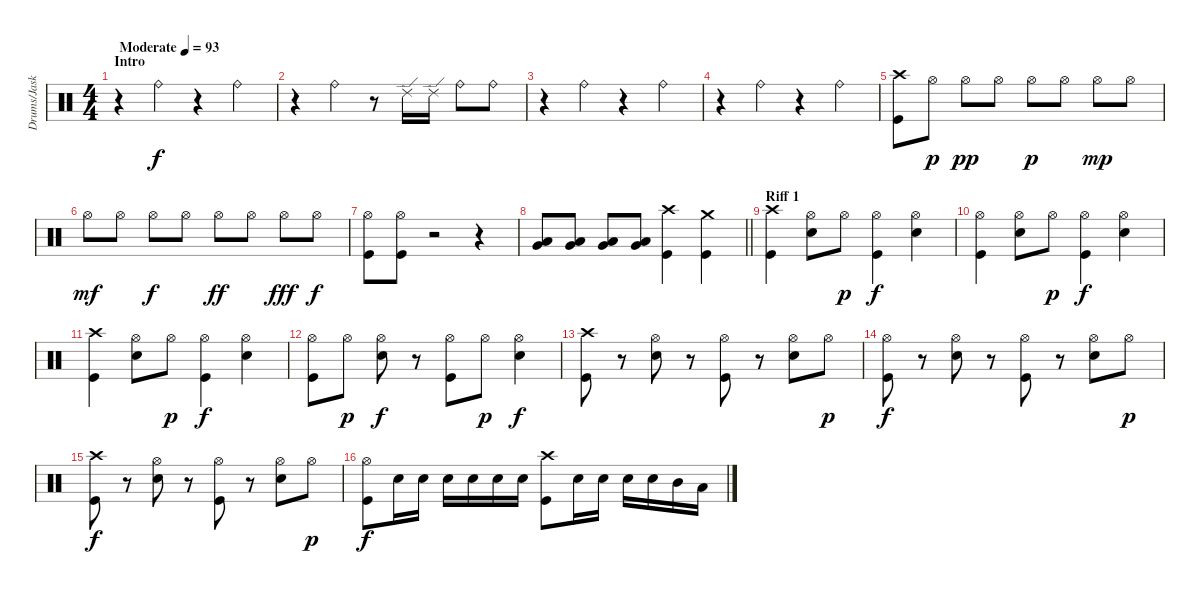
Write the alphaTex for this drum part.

\track ("Drums/Jaska" "Drums/Jask") {instrument percussion}
\staff {score}
\articulation defaults
\ts (4 4)
\section ("" "Intro")
\tempo (93 "Moderate")
\clef neutral
\ks c
r.4{dy f} "Ride (bell)".4 r.4 "Ride (bell)".4 |
r.4 "Ride (bell)".4 r.8 "Ride (edge) 2".16 "Ride (edge) 2".16 "Ride (bell)".8 "Ride (bell)".8 |
r.4 "Ride (bell)".4 r.4 "Ride (bell)".4 |
r.4 "Ride (bell)".4 r.4 "Ride (bell)".4 |
("Crash high (hit)" "Kick (hit)").8 "Hi-Hat (open)".8{dy p} "Hi-Hat (open)".8{dy pp} "Hi-Hat (open)".8 "Hi-Hat (open)".8{dy p} "Hi-Hat (open)".8 "Hi-Hat (open)".8{dy mp} "Hi-Hat (open)".8 |
"Hi-Hat (open)".8{dy mf} "Hi-Hat (open)".8 "Hi-Hat (open)".8{dy f} "Hi-Hat (open)".8 "Hi-Hat (open)".8{dy ff} "Hi-Hat (open)".8 "Hi-Hat (open)".8{dy fff} "Hi-Hat (open)".8{dy f} |
("Hi-Hat (open)" "Kick (hit)").8 ("Hi-Hat (open)" "Kick (hit)").8 r.2 r.4 |
\barLineRight lightlight
("Low Tom (hit)" "Very Low Tom (hit)").8 ("Low Tom (hit)" "Very Low Tom (hit)").8 ("Low Tom (hit)" "Very Low Tom (hit)").8 ("Low Tom (hit)" "Very Low Tom (hit)").8 ("Crash high (hit)" "Kick (hit)").4 ("Crash medium (hit)" "Kick (hit)").4 |
\section ("" "Riff 1")
("Crash high (hit)" "Kick (hit)").4 ("Hi-Hat (open)" "Electric Snare (hit)").8 "Hi-Hat (open)".8{dy p} ("Hi-Hat (open)" "Kick (hit)").4{dy f} ("Hi-Hat (open)" "Electric Snare (hit)").4 |
("Hi-Hat (open)" "Kick (hit)").4 ("Hi-Hat (open)" "Electric Snare (hit)").8 "Hi-Hat (open)".8{dy p} ("Hi-Hat (open)" "Kick (hit)").4{dy f} ("Hi-Hat (open)" "Electric Snare (hit)").4 |
("Crash high (hit)" "Kick (hit)").4 ("Hi-Hat (open)" "Electric Snare (hit)").8 "Hi-Hat (open)".8{dy p} ("Hi-Hat (open)" "Kick (hit)").4{dy f} ("Hi-Hat (open)" "Electric Snare (hit)").4 |
("Hi-Hat (open)" "Kick (hit)").8 "Hi-Hat (open)".8{dy p} ("Hi-Hat (open)" "Electric Snare (hit)").8{dy f} r.8 ("Hi-Hat (open)" "Kick (hit)").8 "Hi-Hat (open)".8{dy p} ("Hi-Hat (open)" "Electric Snare (hit)").4{dy f} |
("Crash high (hit)" "Kick (hit)").8 r.8 ("Hi-Hat (open)" "Electric Snare (hit)").8 r.8 ("Hi-Hat (open)" "Kick (hit)").8 r.8 ("Hi-Hat (open)" "Electric Snare (hit)").8 "Hi-Hat (open)".8{dy p} |
("Hi-Hat (open)" "Kick (hit)").8{dy f} r.8 ("Hi-Hat (open)" "Electric Snare (hit)").8 r.8 ("Hi-Hat (open)" "Kick (hit)").8 r.8 ("Hi-Hat (open)" "Electric Snare (hit)").8 "Hi-Hat (open)".8{dy p} |
("Crash high (hit)" "Kick (hit)").8{dy f} r.8 ("Hi-Hat (open)" "Electric Snare (hit)").8 r.8 ("Hi-Hat (open)" "Kick (hit)").8 r.8 ("Hi-Hat (open)" "Electric Snare (hit)").8 "Hi-Hat (open)".8{dy p} |
("Hi-Hat (open)" "Kick (hit)").8{dy f} "Electric Snare (hit)".16 "Electric Snare (hit)".16 "Electric Snare (hit)".16 "Electric Snare (hit)".16 "Electric Snare (hit)".16 "Electric Snare (hit)".16 ("Crash high (hit)" "Kick (hit)").8 "Electric Snare (hit)".16 "Electric Snare (hit)".16 "Electric Snare (hit)".16 "Electric Snare (hit)".16 "Mid Tom (hit)".16 "Low Tom (hit)".16
